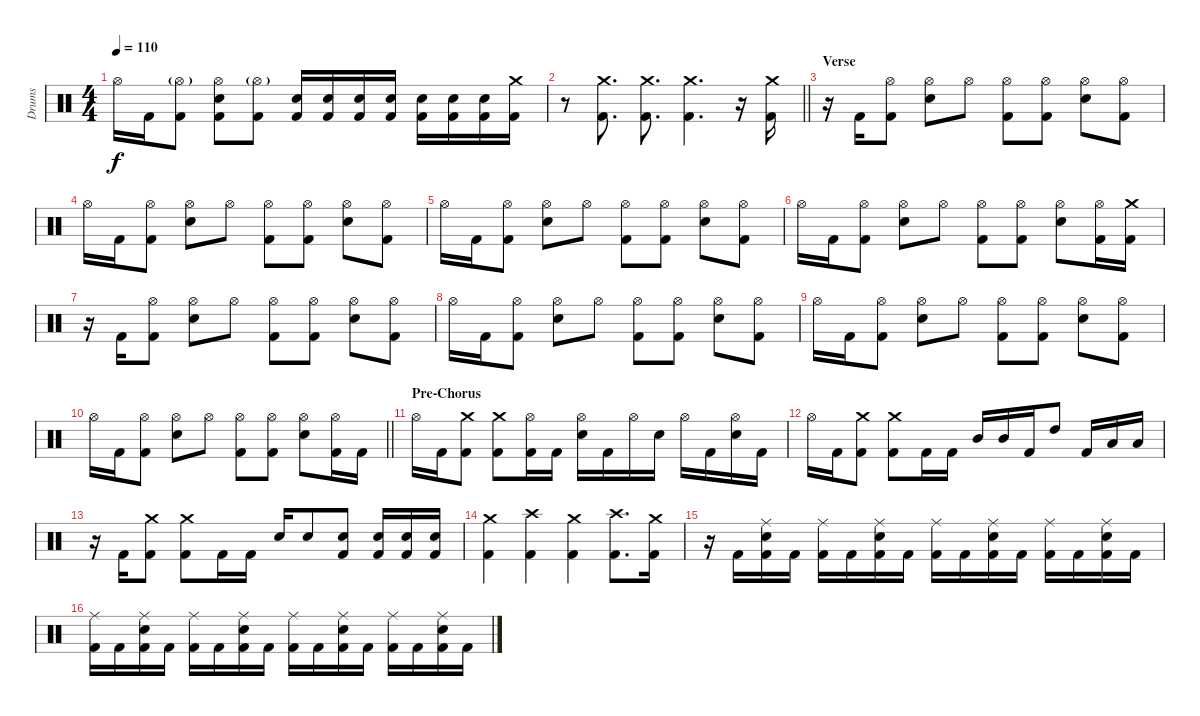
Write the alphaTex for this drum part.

\track ("Drums" "Drums") {instrument percussion}
\staff {score}
\articulation defaults
\ts (4 4)
\tempo 110
\clef neutral
\ks c "Hi-Hat (open)".16{dy f} "Kick (hit) 2".16
("Hi-Hat (open)"{g} "Kick (hit) 2").8 ("Hi-Hat (open)" "Snare (hit) 2" "Kick (hit) 2").8 ("Hi-Hat (open)"{g} "Kick (hit) 2").8 ("Snare (hit) 2" "Kick (hit) 2").16 ("Snare (hit) 2" "Kick (hit) 2").16 ("Snare (hit) 2" "Kick (hit) 2").16 ("Snare (hit) 2" "Kick (hit) 2").16 ("Snare (hit) 2" "Kick (hit) 2").16 ("Snare (hit) 2" "Kick (hit) 2").16 ("Snare (hit) 2" "Kick (hit) 2").16 ("Crash medium (hit)" "Kick (hit) 2").16 |
\barLineRight lightlight
r.8 ("Crash medium (hit)" "Kick (hit) 2").8{d} ("Crash medium (hit)" "Kick (hit) 2").8{d} ("Crash medium (hit)" "Kick (hit) 2").4{d} r.16 ("Crash medium (hit)" "Kick (hit) 2").16 |
\section ("" "Verse")
r.16 "Kick (hit) 2".16 ("Hi-Hat (open)" "Kick (hit) 2").8 ("Hi-Hat (open)" "Snare (hit) 2").8 "Hi-Hat (open)".8 ("Hi-Hat (open)" "Kick (hit) 2").8 ("Hi-Hat (open)" "Kick (hit) 2").8 ("Hi-Hat (open)" "Snare (hit) 2").8 ("Hi-Hat (open)" "Kick (hit) 2").8 |
"Hi-Hat (open)".16 "Kick (hit) 2".16 ("Hi-Hat (open)" "Kick (hit) 2").8 ("Hi-Hat (open)" "Snare (hit) 2").8 "Hi-Hat (open)".8 ("Hi-Hat (open)" "Kick (hit) 2").8 ("Hi-Hat (open)" "Kick (hit) 2").8 ("Hi-Hat (open)" "Snare (hit) 2").8 ("Hi-Hat (open)" "Kick (hit) 2").8 |
"Hi-Hat (open)".16 "Kick (hit) 2".16 ("Hi-Hat (open)" "Kick (hit) 2").8 ("Hi-Hat (open)" "Snare (hit) 2").8 "Hi-Hat (open)".8 ("Hi-Hat (open)" "Kick (hit) 2").8 ("Hi-Hat (open)" "Kick (hit) 2").8 ("Hi-Hat (open)" "Snare (hit) 2").8 ("Hi-Hat (open)" "Kick (hit) 2").8 |
"Hi-Hat (open)".16 "Kick (hit) 2".16 ("Hi-Hat (open)" "Kick (hit) 2").8 ("Hi-Hat (open)" "Snare (hit) 2").8 "Hi-Hat (open)".8 ("Hi-Hat (open)" "Kick (hit) 2").8 ("Hi-Hat (open)" "Kick (hit) 2").8 ("Hi-Hat (open)" "Snare (hit) 2").8 ("Hi-Hat (open)" "Kick (hit) 2").16 ("Crash medium (hit)" "Kick (hit) 2").16 |
r.16 "Kick (hit) 2".16 ("Hi-Hat (open)" "Kick (hit) 2").8 ("Hi-Hat (open)" "Snare (hit) 2").8 "Hi-Hat (open)".8 ("Hi-Hat (open)" "Kick (hit) 2").8 ("Hi-Hat (open)" "Kick (hit) 2").8 ("Hi-Hat (open)" "Snare (hit) 2").8 ("Hi-Hat (open)" "Kick (hit) 2").8 |
"Hi-Hat (open)".16 "Kick (hit) 2".16 ("Hi-Hat (open)" "Kick (hit) 2").8 ("Hi-Hat (open)" "Snare (hit) 2").8 "Hi-Hat (open)".8 ("Hi-Hat (open)" "Kick (hit) 2").8 ("Hi-Hat (open)" "Kick (hit) 2").8 ("Hi-Hat (open)" "Snare (hit) 2").8 ("Hi-Hat (open)" "Kick (hit) 2").8 |
"Hi-Hat (open)".16 "Kick (hit) 2".16 ("Hi-Hat (open)" "Kick (hit) 2").8 ("Hi-Hat (open)" "Snare (hit) 2").8 "Hi-Hat (open)".8 ("Hi-Hat (open)" "Kick (hit) 2").8 ("Hi-Hat (open)" "Kick (hit) 2").8 ("Hi-Hat (open)" "Snare (hit) 2").8 ("Hi-Hat (open)" "Kick (hit) 2").8 |
\barLineRight lightlight "Hi-Hat (open)".16 "Kick (hit) 2".16
("Hi-Hat (open)" "Kick (hit) 2").8 ("Hi-Hat (open)" "Snare (hit) 2").8 "Hi-Hat (open)".8 ("Hi-Hat (open)" "Kick (hit) 2").8 ("Hi-Hat (open)" "Kick (hit) 2").8 ("Hi-Hat (open)" "Snare (hit) 2").8 ("Hi-Hat (open)" "Kick (hit) 2").16 "Kick (hit) 2".16 |
\section ("" "Pre-Chorus")
"Hi-Hat (open)".16 "Kick (hit) 2".16 ("Crash medium (hit)" "Kick (hit) 2").8 ("Crash medium (hit)" "Kick (hit) 2").8 ("Hi-Hat (open)" "Kick (hit) 2").16 "Kick (hit) 2".16 ("Hi-Hat (open)" "Snare (hit) 2").16 "Kick (hit) 2".16 "Hi-Hat (open)".16 "Snare (hit) 2".16 "Hi-Hat (open)".16 "Kick (hit) 2".16 ("Hi-Hat (open)" "Snare (hit) 2").16 "Kick (hit) 2".16 |
"Hi-Hat (open)".16 "Kick (hit) 2".16 ("Crash medium (hit)" "Kick (hit) 2").8 ("Crash medium (hit)" "Kick (hit) 2").8 "Kick (hit) 2".16 "Kick (hit) 2".16 "Mid Tom (hit)".16 "Mid Tom (hit)".16 "Kick (hit) 2".16 "High Tom (hit)".8 "Kick (hit) 2".16 "Low Tom (hit)".16 "Low Tom (hit)".16 |
r.16 "Kick (hit) 2".16 ("Crash medium (hit)" "Kick (hit) 2").8 ("Crash medium (hit)" "Kick (hit) 2").8 "Kick (hit) 2".16 "Kick (hit) 2".16 "Snare (hit) 2".16 "Snare (hit) 2".8 ("Snare (hit) 2" "Kick (hit) 2").8 ("Snare (hit) 2" "Kick (hit) 2").16 ("Snare (hit) 2" "Kick (hit) 2").16 ("Snare (hit) 2" "Kick (hit) 2").16 |
("Crash medium (hit)" "Kick (hit) 2").4 ("Crash high (hit)" "Kick (hit) 2").4 ("Crash medium (hit)" "Kick (hit) 2").4 ("Crash high (hit)" "Kick (hit) 2").8{d} ("Crash medium (hit)" "Kick (hit) 2").16 |
r.16 "Kick (hit) 2".16 ("Ride (middle)" "Snare (hit) 2" "Kick (hit) 2").16 "Kick (hit) 2".16 ("Ride (middle)" "Kick (hit) 2").16 "Kick (hit) 2".16 ("Ride (middle)" "Snare (hit) 2" "Kick (hit) 2").16 "Kick (hit) 2".16 ("Ride (middle)" "Kick (hit) 2").16 "Kick (hit) 2".16 ("Ride (middle)" "Snare (hit) 2" "Kick (hit) 2").16 "Kick (hit) 2".16 ("Ride (middle)" "Kick (hit) 2").16 "Kick (hit) 2".16 ("Ride (middle)" "Snare (hit) 2" "Kick (hit) 2").16 "Kick (hit) 2".16 |
("Ride (middle)" "Kick (hit) 2").16 "Kick (hit) 2".16 ("Ride (middle)" "Snare (hit) 2" "Kick (hit) 2").16 "Kick (hit) 2".16 ("Ride (middle)" "Kick (hit) 2").16 "Kick (hit) 2".16 ("Ride (middle)" "Snare (hit) 2" "Kick (hit) 2").16 "Kick (hit) 2".16 ("Ride (middle)" "Kick (hit) 2").16 "Kick (hit) 2".16 ("Ride (middle)" "Snare (hit) 2" "Kick (hit) 2").16 "Kick (hit) 2".16 ("Ride (middle)" "Kick (hit) 2").16 "Kick (hit) 2".16 ("Ride (middle)" "Snare (hit) 2" "Kick (hit) 2").16 "Kick (hit) 2".16
